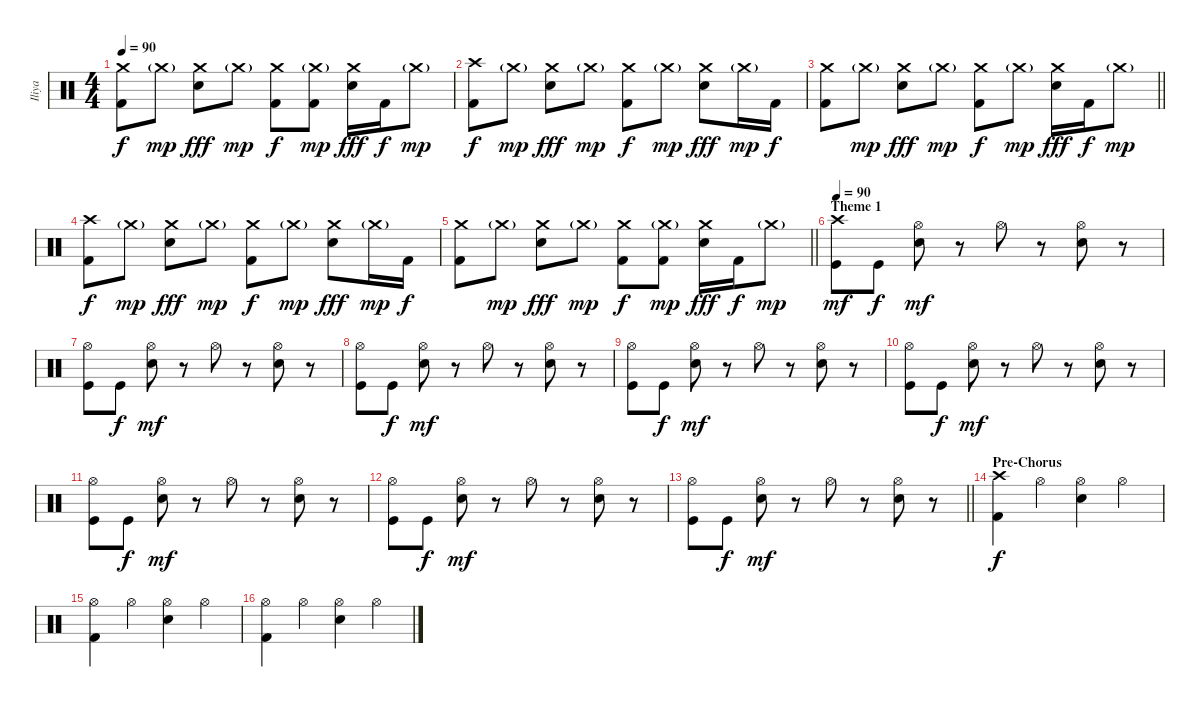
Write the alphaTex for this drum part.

\track ("Iliya" "Iliya") {instrument percussion}
\staff {score}
\articulation defaults
\ts (4 4)
\tempo 90
\clef neutral
\ks c
("Crash medium (hit)" "Kick (hit) 2").8{dy f} "Crash medium (hit)"{g}.8{dy mp} ("Crash medium (hit)" "Snare (hit) 2").8{dy fff} "Crash medium (hit)"{g}.8{dy mp} ("Crash medium (hit)" "Kick (hit) 2").8{dy f} ("Crash medium (hit)"{g} "Kick (hit) 2").8{dy mp} ("Crash medium (hit)" "Snare (hit) 2").16{dy fff} "Kick (hit) 2".16{dy f} "Crash medium (hit)"{g}.8{dy mp} |
("Crash high (hit)" "Kick (hit) 2").8{dy f} "Crash medium (hit)"{g}.8{dy mp} ("Crash medium (hit)" "Snare (hit) 2").8{dy fff} "Crash medium (hit)"{g}.8{dy mp} ("Crash medium (hit)" "Kick (hit) 2").8{dy f} "Crash medium (hit)"{g}.8{dy mp} ("Crash medium (hit)" "Snare (hit) 2").8{dy fff} "Crash medium (hit)"{g}.16{dy mp} "Kick (hit) 2".16{dy f} |
\barLineRight lightlight
("Crash medium (hit)" "Kick (hit) 2").8 "Crash medium (hit)"{g}.8{dy mp} ("Crash medium (hit)" "Snare (hit) 2").8{dy fff} "Crash medium (hit)"{g}.8{dy mp} ("Crash medium (hit)" "Kick (hit) 2").8{dy f} "Crash medium (hit)"{g}.8{dy mp} ("Crash medium (hit)" "Snare (hit) 2").16{dy fff} "Kick (hit) 2".16{dy f} "Crash medium (hit)"{g}.8{dy mp} |
("Crash high (hit)" "Kick (hit) 2").8{dy f} "Crash medium (hit)"{g}.8{dy mp} ("Crash medium (hit)" "Snare (hit) 2").8{dy fff} "Crash medium (hit)"{g}.8{dy mp} ("Crash medium (hit)" "Kick (hit) 2").8{dy f} "Crash medium (hit)"{g}.8{dy mp} ("Crash medium (hit)" "Snare (hit) 2").8{dy fff} "Crash medium (hit)"{g}.16{dy mp} "Kick (hit) 2".16{dy f} |
\barLineRight lightlight
("Crash medium (hit)" "Kick (hit) 2").8 "Crash medium (hit)"{g}.8{dy mp} ("Crash medium (hit)" "Snare (hit) 2").8{dy fff} "Crash medium (hit)"{g}.8{dy mp} ("Crash medium (hit)" "Kick (hit) 2").8{dy f} ("Crash medium (hit)"{g} "Kick (hit) 2").8{dy mp} ("Crash medium (hit)" "Snare (hit) 2").16{dy fff} "Kick (hit) 2".16{dy f} "Crash medium (hit)"{g}.8{dy mp} |
\section ("" "Theme 1")
\tempo 90
("Kick (hit)" "Crash high (hit)").8{dy mf} "Kick (hit)".8{dy f} ("Electric Snare (hit)" "Hi-Hat (open)").8{dy mf} r.8 "Hi-Hat (open)".8 r.8 ("Electric Snare (hit)" "Hi-Hat (open)").8 r.8 |
("Kick (hit)" "Hi-Hat (open)").8 "Kick (hit)".8{dy f} ("Electric Snare (hit)" "Hi-Hat (open)").8{dy mf} r.8 "Hi-Hat (open)".8 r.8 ("Electric Snare (hit)" "Hi-Hat (open)").8 r.8 |
("Kick (hit)" "Hi-Hat (open)").8 "Kick (hit)".8{dy f} ("Electric Snare (hit)" "Hi-Hat (open)").8{dy mf} r.8 "Hi-Hat (open)".8 r.8 ("Electric Snare (hit)" "Hi-Hat (open)").8 r.8 |
("Kick (hit)" "Hi-Hat (open)").8 "Kick (hit)".8{dy f} ("Electric Snare (hit)" "Hi-Hat (open)").8{dy mf} r.8 "Hi-Hat (open)".8 r.8 ("Electric Snare (hit)" "Hi-Hat (open)").8 r.8 |
("Kick (hit)" "Hi-Hat (open)").8 "Kick (hit)".8{dy f} ("Electric Snare (hit)" "Hi-Hat (open)").8{dy mf} r.8 "Hi-Hat (open)".8 r.8 ("Electric Snare (hit)" "Hi-Hat (open)").8 r.8 |
("Kick (hit)" "Hi-Hat (open)").8 "Kick (hit)".8{dy f} ("Electric Snare (hit)" "Hi-Hat (open)").8{dy mf} r.8 "Hi-Hat (open)".8 r.8 ("Electric Snare (hit)" "Hi-Hat (open)").8 r.8 |
("Kick (hit)" "Hi-Hat (open)").8 "Kick (hit)".8{dy f} ("Electric Snare (hit)" "Hi-Hat (open)").8{dy mf} r.8 "Hi-Hat (open)".8 r.8 ("Electric Snare (hit)" "Hi-Hat (open)").8 r.8 |
\barLineRight lightlight
("Kick (hit)" "Hi-Hat (open)").8 "Kick (hit)".8{dy f} ("Electric Snare (hit)" "Hi-Hat (open)").8{dy mf} r.8 "Hi-Hat (open)".8 r.8 ("Electric Snare (hit)" "Hi-Hat (open)").8 r.8 |
\section ("" "Pre-Chorus")
("Kick (hit) 2" "Crash high (hit)").4{dy f} "Hi-Hat (open)".4 ("Electric Snare (hit)" "Hi-Hat (open)").4 "Hi-Hat (open)".4 |
("Hi-Hat (open)" "Kick (hit) 2").4 "Hi-Hat (open)".4 ("Electric Snare (hit)" "Hi-Hat (open)").4 "Hi-Hat (open)".4 |
("Hi-Hat (open)" "Kick (hit) 2").4 "Hi-Hat (open)".4 ("Electric Snare (hit)" "Hi-Hat (open)").4 "Hi-Hat (open)".4
